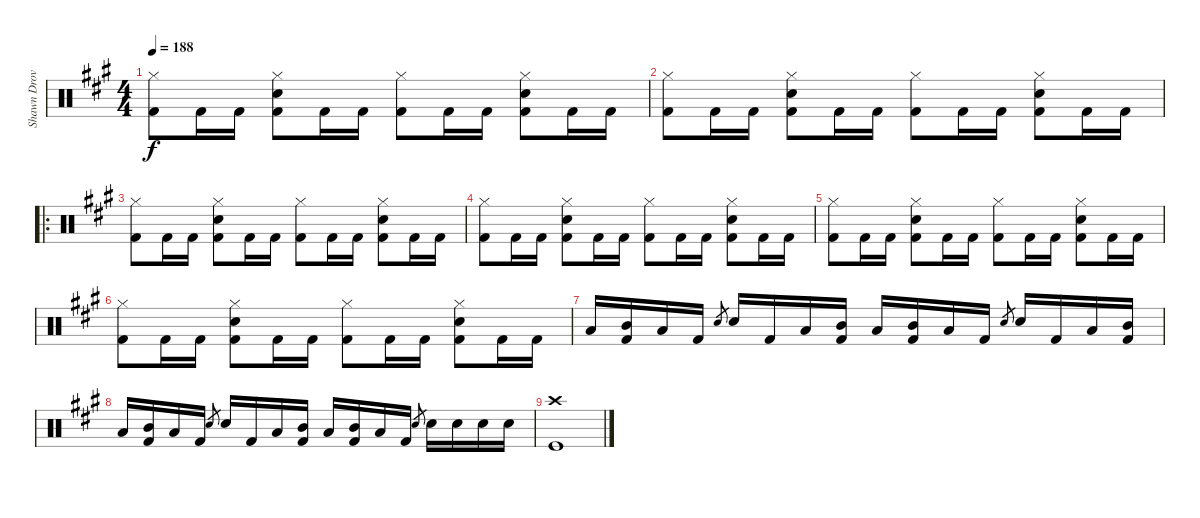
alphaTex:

\track ("Shawn Drover" "Shawn Drov") {instrument percussion}
\staff {score}
\articulation defaults
\ts (4 4)
\tempo 188
\clef neutral
\ks a
("Hi-Hat (closed)" "Kick (hit) 2").8{dy f} "Kick (hit) 2".16 "Kick (hit) 2".16 ("Hi-Hat (closed)" "Electric Snare (hit)" "Kick (hit) 2").8 "Kick (hit) 2".16 "Kick (hit) 2".16 ("Hi-Hat (closed)" "Kick (hit) 2").8 "Kick (hit) 2".16 "Kick (hit) 2".16 ("Hi-Hat (closed)" "Electric Snare (hit)" "Kick (hit) 2").8 "Kick (hit) 2".16 "Kick (hit) 2".16 |
("Hi-Hat (closed)" "Kick (hit) 2").8 "Kick (hit) 2".16 "Kick (hit) 2".16 ("Hi-Hat (closed)" "Electric Snare (hit)" "Kick (hit) 2").8 "Kick (hit) 2".16 "Kick (hit) 2".16 ("Hi-Hat (closed)" "Kick (hit) 2").8 "Kick (hit) 2".16 "Kick (hit) 2".16 ("Hi-Hat (closed)" "Electric Snare (hit)" "Kick (hit) 2").8 "Kick (hit) 2".16 "Kick (hit) 2".16 |
\ro
("Hi-Hat (closed)" "Kick (hit) 2").8 "Kick (hit) 2".16 "Kick (hit) 2".16 ("Hi-Hat (closed)" "Electric Snare (hit)" "Kick (hit) 2").8 "Kick (hit) 2".16 "Kick (hit) 2".16 ("Hi-Hat (closed)" "Kick (hit) 2").8 "Kick (hit) 2".16 "Kick (hit) 2".16 ("Hi-Hat (closed)" "Electric Snare (hit)" "Kick (hit) 2").8 "Kick (hit) 2".16 "Kick (hit) 2".16 |
("Hi-Hat (closed)" "Kick (hit) 2").8 "Kick (hit) 2".16 "Kick (hit) 2".16 ("Hi-Hat (closed)" "Electric Snare (hit)" "Kick (hit) 2").8 "Kick (hit) 2".16 "Kick (hit) 2".16 ("Hi-Hat (closed)" "Kick (hit) 2").8 "Kick (hit) 2".16 "Kick (hit) 2".16 ("Hi-Hat (closed)" "Electric Snare (hit)" "Kick (hit) 2").8 "Kick (hit) 2".16 "Kick (hit) 2".16 |
("Hi-Hat (closed)" "Kick (hit) 2").8 "Kick (hit) 2".16 "Kick (hit) 2".16 ("Hi-Hat (closed)" "Electric Snare (hit)" "Kick (hit) 2").8 "Kick (hit) 2".16 "Kick (hit) 2".16 ("Hi-Hat (closed)" "Kick (hit) 2").8 "Kick (hit) 2".16 "Kick (hit) 2".16 ("Hi-Hat (closed)" "Electric Snare (hit)" "Kick (hit) 2").8 "Kick (hit) 2".16 "Kick (hit) 2".16 |
("Hi-Hat (closed)" "Kick (hit) 2").8 "Kick (hit) 2".16 "Kick (hit) 2".16 ("Hi-Hat (closed)" "Electric Snare (hit)" "Kick (hit) 2").8 "Kick (hit) 2".16 "Kick (hit) 2".16 ("Hi-Hat (closed)" "Kick (hit) 2").8 "Kick (hit) 2".16 "Kick (hit) 2".16 ("Hi-Hat (closed)" "Electric Snare (hit)" "Kick (hit) 2").8 "Kick (hit) 2".16 "Kick (hit) 2".16 |
"Low Tom (hit)".16 ("Kick (hit) 2" "Mid Tom (hit)").16 "Low Tom (hit)".16 "Kick (hit) 2".16 "Snare (hit) 2".8{gr} "Snare (hit) 2".16 "Kick (hit) 2".16 "Low Tom (hit)".16 ("Kick (hit) 2" "Mid Tom (hit)").16 "Low Tom (hit)".16 ("Kick (hit) 2" "Mid Tom (hit)").16 "Low Tom (hit)".16 "Kick (hit) 2".16 "Snare (hit) 2".8{gr} "Snare (hit) 2".16 "Kick (hit) 2".16 "Low Tom (hit)".16 ("Kick (hit) 2" "Mid Tom (hit)").16 |
"Low Tom (hit)".16 ("Kick (hit) 2" "Mid Tom (hit)").16 "Low Tom (hit)".16 "Kick (hit) 2".16 "Snare (hit) 2".8{gr} "Snare (hit) 2".16 "Kick (hit) 2".16 "Low Tom (hit)".16 ("Kick (hit) 2" "Mid Tom (hit)").16 "Low Tom (hit)".16 ("Kick (hit) 2" "Mid Tom (hit)").16 "Low Tom (hit)".16 "Kick (hit) 2".16 "Snare (hit) 2".8{gr} "Snare (hit) 2".16 "Snare (hit) 2".16 "Snare (hit) 2".16 "Snare (hit) 2".16 |
("Crash high (hit)" "Kick (hit)").1
